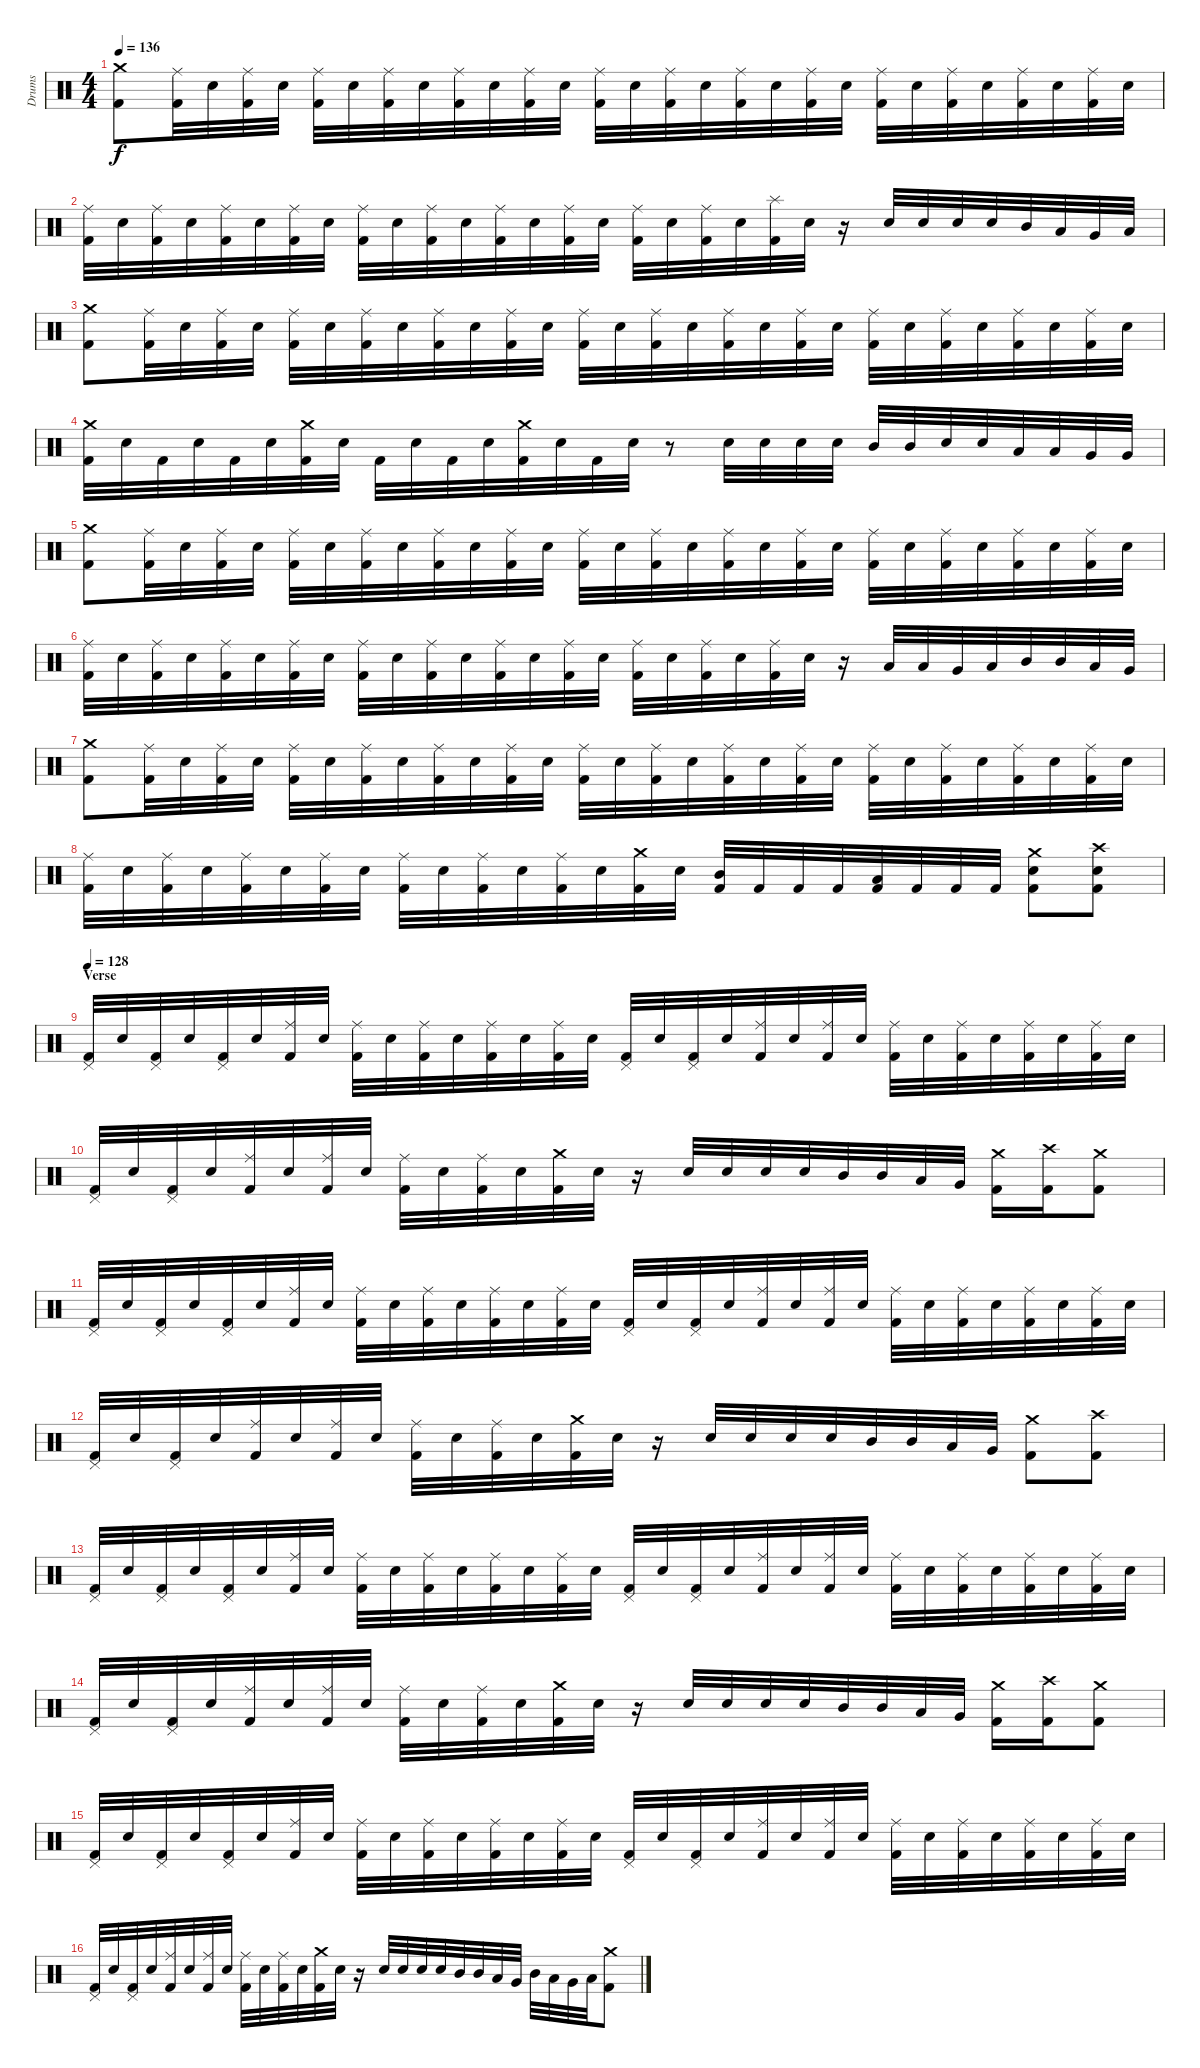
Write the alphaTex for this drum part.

\track ("Drums" "Drums") {instrument percussion}
\staff {score}
\articulation defaults
\ts (4 4)
\section ("" "")
\tempo 136
\clef neutral
\ks c
("Crash medium (hit)" "Kick (hit) 2").8{dy f} ("Ride (middle)" "Kick (hit) 2").32 "Electric Snare (hit)".32 ("Ride (middle)" "Kick (hit) 2").32 "Electric Snare (hit)".32 ("Ride (middle)" "Kick (hit) 2").32 "Electric Snare (hit)".32 ("Ride (middle)" "Kick (hit) 2").32 "Electric Snare (hit)".32 ("Ride (middle)" "Kick (hit) 2").32 "Electric Snare (hit)".32 ("Ride (middle)" "Kick (hit) 2").32 "Electric Snare (hit)".32 ("Ride (middle)" "Kick (hit) 2").32 "Electric Snare (hit)".32 ("Ride (middle)" "Kick (hit) 2").32 "Electric Snare (hit)".32 ("Ride (middle)" "Kick (hit) 2").32 "Electric Snare (hit)".32 ("Ride (middle)" "Kick (hit) 2").32 "Electric Snare (hit)".32 ("Ride (middle)" "Kick (hit) 2").32 "Electric Snare (hit)".32 ("Ride (middle)" "Kick (hit) 2").32 "Electric Snare (hit)".32 ("Ride (middle)" "Kick (hit) 2").32 "Electric Snare (hit)".32 ("Ride (middle)" "Kick (hit) 2").32 "Electric Snare (hit)".32 |
("Ride (middle)" "Kick (hit) 2").32 "Electric Snare (hit)".32 ("Ride (middle)" "Kick (hit) 2").32 "Electric Snare (hit)".32 ("Ride (middle)" "Kick (hit) 2").32 "Electric Snare (hit)".32 ("Ride (middle)" "Kick (hit) 2").32 "Electric Snare (hit)".32 ("Ride (middle)" "Kick (hit) 2").32 "Electric Snare (hit)".32 ("Ride (middle)" "Kick (hit) 2").32 "Electric Snare (hit)".32 ("Ride (middle)" "Kick (hit) 2").32 "Electric Snare (hit)".32 ("Ride (middle)" "Kick (hit) 2").32 "Electric Snare (hit)".32 ("Ride (middle)" "Kick (hit) 2").32 "Electric Snare (hit)".32 ("Ride (middle)" "Kick (hit) 2").32 "Electric Snare (hit)".32 ("Splash (hit)" "Kick (hit) 2").32 "Electric Snare (hit)".32 r.16 "Electric Snare (hit)".32 "Electric Snare (hit)".32 "Electric Snare (hit)".32 "Electric Snare (hit)".32 "Mid Tom (hit)".32 "Low Tom (hit)".32 "Very Low Tom (hit)".32 "Low Floor Tom (hit)".32 |
("Crash medium (hit)" "Kick (hit) 2").8 ("Ride (middle)" "Kick (hit) 2").32 "Electric Snare (hit)".32 ("Ride (middle)" "Kick (hit) 2").32 "Electric Snare (hit)".32 ("Ride (middle)" "Kick (hit) 2").32 "Electric Snare (hit)".32 ("Ride (middle)" "Kick (hit) 2").32 "Electric Snare (hit)".32 ("Ride (middle)" "Kick (hit) 2").32 "Electric Snare (hit)".32 ("Ride (middle)" "Kick (hit) 2").32 "Electric Snare (hit)".32 ("Ride (middle)" "Kick (hit) 2").32 "Electric Snare (hit)".32 ("Ride (middle)" "Kick (hit) 2").32 "Electric Snare (hit)".32 ("Ride (middle)" "Kick (hit) 2").32 "Electric Snare (hit)".32 ("Ride (middle)" "Kick (hit) 2").32 "Electric Snare (hit)".32 ("Ride (middle)" "Kick (hit) 2").32 "Electric Snare (hit)".32 ("Ride (middle)" "Kick (hit) 2").32 "Electric Snare (hit)".32 ("Ride (middle)" "Kick (hit) 2").32 "Electric Snare (hit)".32 ("Ride (middle)" "Kick (hit) 2").32 "Electric Snare (hit)".32 |
("Crash medium (hit)" "Kick (hit) 2").32 "Electric Snare (hit)".32 "Kick (hit) 2".32 "Electric Snare (hit)".32 "Kick (hit) 2".32 "Electric Snare (hit)".32 ("Crash medium (hit)" "Kick (hit) 2").32 "Electric Snare (hit)".32 "Kick (hit) 2".32 "Electric Snare (hit)".32 "Kick (hit) 2".32 "Electric Snare (hit)".32 ("Crash medium (hit)" "Kick (hit) 2").32 "Electric Snare (hit)".32 "Kick (hit) 2".32 "Electric Snare (hit)".32 r.8 "Electric Snare (hit)".32 "Electric Snare (hit)".32 "Electric Snare (hit)".32 "Electric Snare (hit)".32 "Mid Tom (hit)".32 "Mid Tom (hit)".32 "Electric Snare (hit)".32 "Electric Snare (hit)".32 "Low Tom (hit)".32 "Low Tom (hit)".32 "Very Low Tom (hit)".32 "Very Low Tom (hit)".32 |
("Crash medium (hit)" "Kick (hit) 2").8 ("Ride (middle)" "Kick (hit) 2").32 "Electric Snare (hit)".32 ("Ride (middle)" "Kick (hit) 2").32 "Electric Snare (hit)".32 ("Ride (middle)" "Kick (hit) 2").32 "Electric Snare (hit)".32 ("Ride (middle)" "Kick (hit) 2").32 "Electric Snare (hit)".32 ("Ride (middle)" "Kick (hit) 2").32 "Electric Snare (hit)".32 ("Ride (middle)" "Kick (hit) 2").32 "Electric Snare (hit)".32 ("Ride (middle)" "Kick (hit) 2").32 "Electric Snare (hit)".32 ("Ride (middle)" "Kick (hit) 2").32 "Electric Snare (hit)".32 ("Ride (middle)" "Kick (hit) 2").32 "Electric Snare (hit)".32 ("Ride (middle)" "Kick (hit) 2").32 "Electric Snare (hit)".32 ("Ride (middle)" "Kick (hit) 2").32 "Electric Snare (hit)".32 ("Ride (middle)" "Kick (hit) 2").32 "Electric Snare (hit)".32 ("Ride (middle)" "Kick (hit) 2").32 "Electric Snare (hit)".32 ("Ride (middle)" "Kick (hit) 2").32 "Electric Snare (hit)".32 |
("Ride (middle)" "Kick (hit) 2").32 "Electric Snare (hit)".32 ("Ride (middle)" "Kick (hit) 2").32 "Electric Snare (hit)".32 ("Ride (middle)" "Kick (hit) 2").32 "Electric Snare (hit)".32 ("Ride (middle)" "Kick (hit) 2").32 "Electric Snare (hit)".32 ("Ride (middle)" "Kick (hit) 2").32 "Electric Snare (hit)".32 ("Ride (middle)" "Kick (hit) 2").32 "Electric Snare (hit)".32 ("Ride (middle)" "Kick (hit) 2").32 "Electric Snare (hit)".32 ("Ride (middle)" "Kick (hit) 2").32 "Electric Snare (hit)".32 ("Ride (middle)" "Kick (hit) 2").32 "Electric Snare (hit)".32 ("Ride (middle)" "Kick (hit) 2").32 "Electric Snare (hit)".32 ("Ride (middle)" "Kick (hit) 2").32 "Electric Snare (hit)".32 r.16 "Low Tom (hit)".32 "Low Tom (hit)".32 "Very Low Tom (hit)".32 "Low Floor Tom (hit)".32 "Mid Tom (hit)".32 "Mid Tom (hit)".32 "Low Tom (hit)".32 "Very Low Tom (hit)".32 |
("Crash medium (hit)" "Kick (hit) 2").8 ("Ride (middle)" "Kick (hit) 2").32 "Electric Snare (hit)".32 ("Ride (middle)" "Kick (hit) 2").32 "Electric Snare (hit)".32 ("Ride (middle)" "Kick (hit) 2").32 "Electric Snare (hit)".32 ("Ride (middle)" "Kick (hit) 2").32 "Electric Snare (hit)".32 ("Ride (middle)" "Kick (hit) 2").32 "Electric Snare (hit)".32 ("Ride (middle)" "Kick (hit) 2").32 "Electric Snare (hit)".32 ("Ride (middle)" "Kick (hit) 2").32 "Electric Snare (hit)".32 ("Ride (middle)" "Kick (hit) 2").32 "Electric Snare (hit)".32 ("Ride (middle)" "Kick (hit) 2").32 "Electric Snare (hit)".32 ("Ride (middle)" "Kick (hit) 2").32 "Electric Snare (hit)".32 ("Ride (middle)" "Kick (hit) 2").32 "Electric Snare (hit)".32 ("Ride (middle)" "Kick (hit) 2").32 "Electric Snare (hit)".32 ("Ride (middle)" "Kick (hit) 2").32 "Electric Snare (hit)".32 ("Ride (middle)" "Kick (hit) 2").32 "Electric Snare (hit)".32 |
("Ride (middle)" "Kick (hit) 2").32 "Electric Snare (hit)".32 ("Ride (middle)" "Kick (hit) 2").32 "Electric Snare (hit)".32 ("Ride (middle)" "Kick (hit) 2").32 "Electric Snare (hit)".32 ("Ride (middle)" "Kick (hit) 2").32 "Electric Snare (hit)".32 ("Ride (middle)" "Kick (hit) 2").32 "Electric Snare (hit)".32 ("Ride (middle)" "Kick (hit) 2").32 "Electric Snare (hit)".32 ("Ride (middle)" "Kick (hit) 2").32 "Electric Snare (hit)".32 ("Crash medium (hit)" "Kick (hit) 2").32 "Electric Snare (hit)".32 ("Mid Tom (hit)" "Kick (hit) 2").32 "Kick (hit) 2".32 "Kick (hit) 2".32 "Kick (hit) 2".32 ("Low Tom (hit)" "Kick (hit) 2").32 "Kick (hit) 2".32 "Kick (hit) 2".32 "Kick (hit) 2".32 ("Crash medium (hit)" "Electric Snare (hit)" "Kick (hit) 2").8 ("Crash high (hit)" "Electric Snare (hit)" "Kick (hit) 2").8 |
\section ("" "Verse")
\tempo 128
("Pedal Hi-Hat (hit)" "Kick (hit) 2").32 "Electric Snare (hit)".32 ("Pedal Hi-Hat (hit)" "Kick (hit) 2").32 "Electric Snare (hit)".32 ("Pedal Hi-Hat (hit)" "Kick (hit) 2").32 "Electric Snare (hit)".32 ("Ride (middle)" "Kick (hit) 2").32 "Electric Snare (hit)".32 ("Ride (middle)" "Kick (hit) 2").32 "Electric Snare (hit)".32 ("Ride (middle)" "Kick (hit) 2").32 "Electric Snare (hit)".32 ("Ride (middle)" "Kick (hit) 2").32 "Electric Snare (hit)".32 ("Ride (middle)" "Kick (hit) 2").32 "Electric Snare (hit)".32 ("Pedal Hi-Hat (hit)" "Kick (hit) 2").32 "Electric Snare (hit)".32 ("Pedal Hi-Hat (hit)" "Kick (hit) 2").32 "Electric Snare (hit)".32 ("Ride (middle)" "Kick (hit) 2").32 "Electric Snare (hit)".32 ("Ride (middle)" "Kick (hit) 2").32 "Electric Snare (hit)".32 ("Ride (middle)" "Kick (hit) 2").32 "Electric Snare (hit)".32 ("Ride (middle)" "Kick (hit) 2").32 "Electric Snare (hit)".32 ("Ride (middle)" "Kick (hit) 2").32 "Electric Snare (hit)".32 ("Ride (middle)" "Kick (hit) 2").32 "Electric Snare (hit)".32 |
("Pedal Hi-Hat (hit)" "Kick (hit) 2").32 "Electric Snare (hit)".32 ("Pedal Hi-Hat (hit)" "Kick (hit) 2").32 "Electric Snare (hit)".32 ("Ride (middle)" "Kick (hit) 2").32 "Electric Snare (hit)".32 ("Ride (middle)" "Kick (hit) 2").32 "Electric Snare (hit)".32 ("Ride (middle)" "Kick (hit) 2").32 "Electric Snare (hit)".32 ("Ride (middle)" "Kick (hit) 2").32 "Electric Snare (hit)".32 ("Crash medium (hit)" "Kick (hit) 2").32 "Electric Snare (hit)".32 r.16 "Electric Snare (hit)".32 "Electric Snare (hit)".32 "Electric Snare (hit)".32 "Electric Snare (hit)".32 "Mid Tom (hit)".32 "Mid Tom (hit)".32 "Low Tom (hit)".32 "Very Low Tom (hit)".32 ("Crash medium (hit)" "Kick (hit) 2").16 ("Crash high (hit)" "Kick (hit) 2").16 ("Crash medium (hit)" "Kick (hit) 2").8 |
("Pedal Hi-Hat (hit)" "Kick (hit) 2").32 "Electric Snare (hit)".32 ("Pedal Hi-Hat (hit)" "Kick (hit) 2").32 "Electric Snare (hit)".32 ("Pedal Hi-Hat (hit)" "Kick (hit) 2").32 "Electric Snare (hit)".32 ("Ride (middle)" "Kick (hit) 2").32 "Electric Snare (hit)".32 ("Ride (middle)" "Kick (hit) 2").32 "Electric Snare (hit)".32 ("Ride (middle)" "Kick (hit) 2").32 "Electric Snare (hit)".32 ("Ride (middle)" "Kick (hit) 2").32 "Electric Snare (hit)".32 ("Ride (middle)" "Kick (hit) 2").32 "Electric Snare (hit)".32 ("Pedal Hi-Hat (hit)" "Kick (hit) 2").32 "Electric Snare (hit)".32 ("Pedal Hi-Hat (hit)" "Kick (hit) 2").32 "Electric Snare (hit)".32 ("Ride (middle)" "Kick (hit) 2").32 "Electric Snare (hit)".32 ("Ride (middle)" "Kick (hit) 2").32 "Electric Snare (hit)".32 ("Ride (middle)" "Kick (hit) 2").32 "Electric Snare (hit)".32 ("Ride (middle)" "Kick (hit) 2").32 "Electric Snare (hit)".32 ("Ride (middle)" "Kick (hit) 2").32 "Electric Snare (hit)".32 ("Ride (middle)" "Kick (hit) 2").32 "Electric Snare (hit)".32 |
("Pedal Hi-Hat (hit)" "Kick (hit) 2").32 "Electric Snare (hit)".32 ("Pedal Hi-Hat (hit)" "Kick (hit) 2").32 "Electric Snare (hit)".32 ("Ride (middle)" "Kick (hit) 2").32 "Electric Snare (hit)".32 ("Ride (middle)" "Kick (hit) 2").32 "Electric Snare (hit)".32 ("Ride (middle)" "Kick (hit) 2").32 "Electric Snare (hit)".32 ("Ride (middle)" "Kick (hit) 2").32 "Electric Snare (hit)".32 ("Crash medium (hit)" "Kick (hit) 2").32 "Electric Snare (hit)".32 r.16 "Electric Snare (hit)".32 "Electric Snare (hit)".32 "Electric Snare (hit)".32 "Electric Snare (hit)".32 "Mid Tom (hit)".32 "Mid Tom (hit)".32 "Low Tom (hit)".32 "Very Low Tom (hit)".32 ("Crash medium (hit)" "Kick (hit) 2").8 ("Crash high (hit)" "Kick (hit) 2").8 |
("Pedal Hi-Hat (hit)" "Kick (hit) 2").32 "Electric Snare (hit)".32 ("Pedal Hi-Hat (hit)" "Kick (hit) 2").32 "Electric Snare (hit)".32 ("Pedal Hi-Hat (hit)" "Kick (hit) 2").32 "Electric Snare (hit)".32 ("Ride (middle)" "Kick (hit) 2").32 "Electric Snare (hit)".32 ("Ride (middle)" "Kick (hit) 2").32 "Electric Snare (hit)".32 ("Ride (middle)" "Kick (hit) 2").32 "Electric Snare (hit)".32 ("Ride (middle)" "Kick (hit) 2").32 "Electric Snare (hit)".32 ("Ride (middle)" "Kick (hit) 2").32 "Electric Snare (hit)".32 ("Pedal Hi-Hat (hit)" "Kick (hit) 2").32 "Electric Snare (hit)".32 ("Pedal Hi-Hat (hit)" "Kick (hit) 2").32 "Electric Snare (hit)".32 ("Ride (middle)" "Kick (hit) 2").32 "Electric Snare (hit)".32 ("Ride (middle)" "Kick (hit) 2").32 "Electric Snare (hit)".32 ("Ride (middle)" "Kick (hit) 2").32 "Electric Snare (hit)".32 ("Ride (middle)" "Kick (hit) 2").32 "Electric Snare (hit)".32 ("Ride (middle)" "Kick (hit) 2").32 "Electric Snare (hit)".32 ("Ride (middle)" "Kick (hit) 2").32 "Electric Snare (hit)".32 |
("Pedal Hi-Hat (hit)" "Kick (hit) 2").32 "Electric Snare (hit)".32 ("Pedal Hi-Hat (hit)" "Kick (hit) 2").32 "Electric Snare (hit)".32 ("Ride (middle)" "Kick (hit) 2").32 "Electric Snare (hit)".32 ("Ride (middle)" "Kick (hit) 2").32 "Electric Snare (hit)".32 ("Ride (middle)" "Kick (hit) 2").32 "Electric Snare (hit)".32 ("Ride (middle)" "Kick (hit) 2").32 "Electric Snare (hit)".32 ("Crash medium (hit)" "Kick (hit) 2").32 "Electric Snare (hit)".32 r.16 "Electric Snare (hit)".32 "Electric Snare (hit)".32 "Electric Snare (hit)".32 "Electric Snare (hit)".32 "Mid Tom (hit)".32 "Mid Tom (hit)".32 "Low Tom (hit)".32 "Very Low Tom (hit)".32 ("Crash medium (hit)" "Kick (hit) 2").16 ("Crash high (hit)" "Kick (hit) 2").16 ("Crash medium (hit)" "Kick (hit) 2").8 |
("Pedal Hi-Hat (hit)" "Kick (hit) 2").32 "Electric Snare (hit)".32 ("Pedal Hi-Hat (hit)" "Kick (hit) 2").32 "Electric Snare (hit)".32 ("Pedal Hi-Hat (hit)" "Kick (hit) 2").32 "Electric Snare (hit)".32 ("Ride (middle)" "Kick (hit) 2").32 "Electric Snare (hit)".32 ("Ride (middle)" "Kick (hit) 2").32 "Electric Snare (hit)".32 ("Ride (middle)" "Kick (hit) 2").32 "Electric Snare (hit)".32 ("Ride (middle)" "Kick (hit) 2").32 "Electric Snare (hit)".32 ("Ride (middle)" "Kick (hit) 2").32 "Electric Snare (hit)".32 ("Pedal Hi-Hat (hit)" "Kick (hit) 2").32 "Electric Snare (hit)".32 ("Pedal Hi-Hat (hit)" "Kick (hit) 2").32 "Electric Snare (hit)".32 ("Ride (middle)" "Kick (hit) 2").32 "Electric Snare (hit)".32 ("Ride (middle)" "Kick (hit) 2").32 "Electric Snare (hit)".32 ("Ride (middle)" "Kick (hit) 2").32 "Electric Snare (hit)".32 ("Ride (middle)" "Kick (hit) 2").32 "Electric Snare (hit)".32 ("Ride (middle)" "Kick (hit) 2").32 "Electric Snare (hit)".32 ("Ride (middle)" "Kick (hit) 2").32 "Electric Snare (hit)".32 |
("Pedal Hi-Hat (hit)" "Kick (hit) 2").32 "Electric Snare (hit)".32 ("Pedal Hi-Hat (hit)" "Kick (hit) 2").32 "Electric Snare (hit)".32 ("Ride (middle)" "Kick (hit) 2").32 "Electric Snare (hit)".32 ("Ride (middle)" "Kick (hit) 2").32 "Electric Snare (hit)".32 ("Ride (middle)" "Kick (hit) 2").32 "Electric Snare (hit)".32 ("Ride (middle)" "Kick (hit) 2").32 "Electric Snare (hit)".32 ("Crash medium (hit)" "Kick (hit) 2").32 "Electric Snare (hit)".32 r.16 "Electric Snare (hit)".32 "Electric Snare (hit)".32 "Electric Snare (hit)".32 "Electric Snare (hit)".32 "Mid Tom (hit)".32 "Mid Tom (hit)".32 "Low Tom (hit)".32 "Very Low Tom (hit)".32 "Mid Tom (hit)".32 "Low Tom (hit)".32 "Very Low Tom (hit)".32 "Low Floor Tom (hit)".32 ("Crash medium (hit)" "Kick (hit) 2").8
